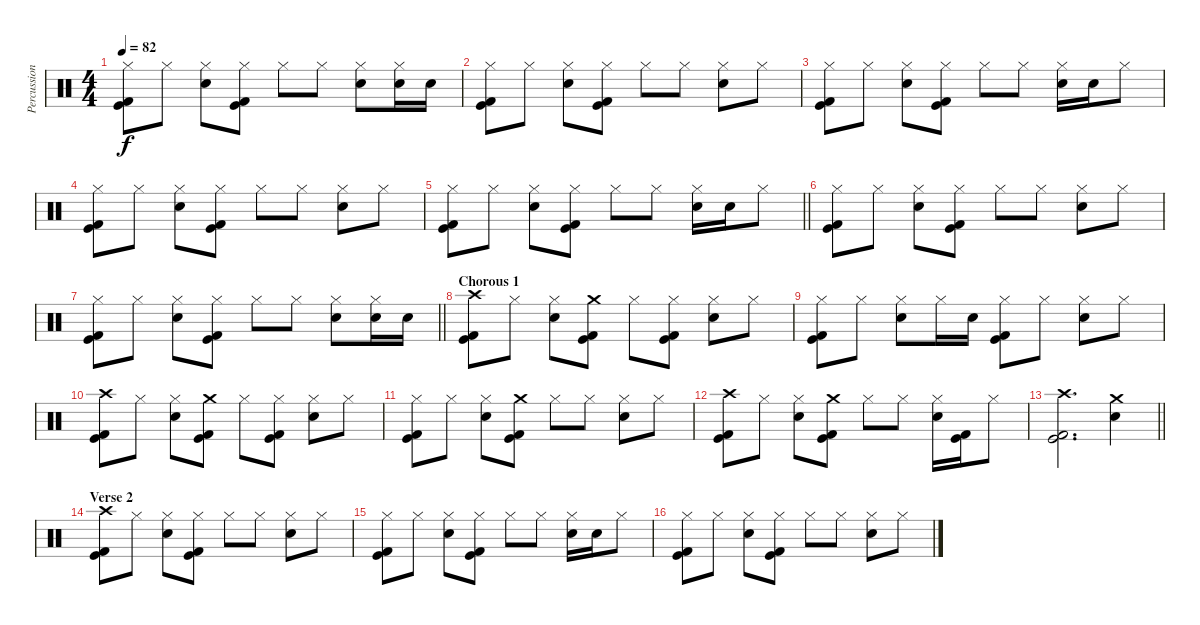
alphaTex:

\track ("Percussion" "Percussion") {instrument percussion}
\staff {score}
\articulation defaults
\ts (4 4)
\tempo 82
\clef neutral
\ks c
("Hi-Hat (closed)" "Kick (hit)" "Kick (hit) 2").8{dy f} "Hi-Hat (closed)".8 ("Hi-Hat (closed)" "Electric Snare (hit)").8 ("Hi-Hat (closed)" "Kick (hit)" "Kick (hit) 2").8 "Hi-Hat (closed)".8 "Hi-Hat (closed)".8 ("Hi-Hat (closed)" "Electric Snare (hit)").8 ("Hi-Hat (closed)" "Electric Snare (hit)").16 "Electric Snare (hit)".16 |
("Hi-Hat (closed)" "Kick (hit)" "Kick (hit) 2").8 "Hi-Hat (closed)".8 ("Hi-Hat (closed)" "Electric Snare (hit)").8 ("Hi-Hat (closed)" "Kick (hit)" "Kick (hit) 2").8 "Hi-Hat (closed)".8 "Hi-Hat (closed)".8 ("Hi-Hat (closed)" "Electric Snare (hit)").8 "Hi-Hat (closed)".8 |
("Hi-Hat (closed)" "Kick (hit)" "Kick (hit) 2").8 "Hi-Hat (closed)".8 ("Hi-Hat (closed)" "Electric Snare (hit)").8 ("Hi-Hat (closed)" "Kick (hit)" "Kick (hit) 2").8 "Hi-Hat (closed)".8 "Hi-Hat (closed)".8 ("Hi-Hat (closed)" "Electric Snare (hit)").16 "Electric Snare (hit)".16 "Hi-Hat (closed)".8 |
("Hi-Hat (closed)" "Kick (hit)" "Kick (hit) 2").8 "Hi-Hat (closed)".8 ("Hi-Hat (closed)" "Electric Snare (hit)").8 ("Hi-Hat (closed)" "Kick (hit)" "Kick (hit) 2").8 "Hi-Hat (closed)".8 "Hi-Hat (closed)".8 ("Hi-Hat (closed)" "Electric Snare (hit)").8 "Hi-Hat (closed)".8 |
\barLineRight lightlight
("Hi-Hat (closed)" "Kick (hit)" "Kick (hit) 2").8 "Hi-Hat (closed)".8 ("Hi-Hat (closed)" "Electric Snare (hit)").8 ("Hi-Hat (closed)" "Kick (hit)" "Kick (hit) 2").8 "Hi-Hat (closed)".8 "Hi-Hat (closed)".8 ("Hi-Hat (closed)" "Electric Snare (hit)").16 "Electric Snare (hit)".16 "Hi-Hat (closed)".8 |
\section ("" "")
("Hi-Hat (closed)" "Kick (hit)" "Kick (hit) 2").8 "Hi-Hat (closed)".8 ("Hi-Hat (closed)" "Electric Snare (hit)").8 ("Hi-Hat (closed)" "Kick (hit)" "Kick (hit) 2").8 "Hi-Hat (closed)".8 "Hi-Hat (closed)".8 ("Hi-Hat (closed)" "Electric Snare (hit)").8 "Hi-Hat (closed)".8 |
\barLineRight lightlight
("Hi-Hat (closed)" "Kick (hit)" "Kick (hit) 2").8 "Hi-Hat (closed)".8 ("Hi-Hat (closed)" "Electric Snare (hit)").8 ("Hi-Hat (closed)" "Kick (hit)" "Kick (hit) 2").8 "Hi-Hat (closed)".8 "Hi-Hat (closed)".8 ("Hi-Hat (closed)" "Electric Snare (hit)").8 ("Hi-Hat (closed)" "Electric Snare (hit)").16 "Electric Snare (hit)".16 |
\section ("" "Chorous 1")
("Crash high (hit)" "Kick (hit)" "Kick (hit) 2").8 "Hi-Hat (closed)".8 ("Hi-Hat (closed)" "Electric Snare (hit)").8 ("Crash medium (hit)" "Kick (hit)" "Kick (hit) 2").8 "Hi-Hat (closed)".8 ("Hi-Hat (closed)" "Kick (hit)" "Kick (hit) 2").8 ("Hi-Hat (closed)" "Electric Snare (hit)").8 "Hi-Hat (closed)".8 |
("Hi-Hat (closed)" "Kick (hit)" "Kick (hit) 2").8 "Hi-Hat (closed)".8 ("Hi-Hat (closed)" "Electric Snare (hit)").8 "Hi-Hat (closed)".16 "Electric Snare (hit)".16 ("Hi-Hat (closed)" "Kick (hit)" "Kick (hit) 2").8 "Hi-Hat (closed)".8 ("Hi-Hat (closed)" "Electric Snare (hit)").8 "Hi-Hat (closed)".8 |
("Crash high (hit)" "Kick (hit)" "Kick (hit) 2").8 "Hi-Hat (closed)".8 ("Hi-Hat (closed)" "Electric Snare (hit)").8 ("Crash medium (hit)" "Kick (hit)" "Kick (hit) 2").8 "Hi-Hat (closed)".8 ("Hi-Hat (closed)" "Kick (hit)" "Kick (hit) 2").8 ("Hi-Hat (closed)" "Electric Snare (hit)").8 "Hi-Hat (closed)".8 |
("Hi-Hat (closed)" "Kick (hit)" "Kick (hit) 2").8 "Hi-Hat (closed)".8 ("Hi-Hat (closed)" "Electric Snare (hit)").8 ("Crash medium (hit)" "Kick (hit)" "Kick (hit) 2").8 "Hi-Hat (closed)".8 "Hi-Hat (closed)".8 ("Hi-Hat (closed)" "Electric Snare (hit)").8 "Hi-Hat (closed)".8 |
("Crash high (hit)" "Kick (hit)" "Kick (hit) 2").8 "Hi-Hat (closed)".8 ("Hi-Hat (closed)" "Electric Snare (hit)").8 ("Crash medium (hit)" "Kick (hit)" "Kick (hit) 2").8 "Hi-Hat (closed)".8 "Hi-Hat (closed)".8 ("Hi-Hat (closed)" "Electric Snare (hit)").16 ("Kick (hit)" "Kick (hit) 2").16 "Hi-Hat (closed)".8 |
\barLineRight lightlight
("Crash high (hit)" "Kick (hit)" "Kick (hit) 2").2{d} ("Crash medium (hit)" "Electric Snare (hit)").4 |
\section ("" "Verse 2")
("Crash high (hit)" "Kick (hit)" "Kick (hit) 2").8 "Hi-Hat (closed)".8 ("Hi-Hat (closed)" "Electric Snare (hit)").8 ("Hi-Hat (closed)" "Kick (hit)" "Kick (hit) 2").8 "Hi-Hat (closed)".8 "Hi-Hat (closed)".8 ("Hi-Hat (closed)" "Electric Snare (hit)").8 "Hi-Hat (closed)".8 |
("Hi-Hat (closed)" "Kick (hit)" "Kick (hit) 2").8 "Hi-Hat (closed)".8 ("Hi-Hat (closed)" "Electric Snare (hit)").8 ("Hi-Hat (closed)" "Kick (hit)" "Kick (hit) 2").8 "Hi-Hat (closed)".8 "Hi-Hat (closed)".8 ("Hi-Hat (closed)" "Electric Snare (hit)").16 "Electric Snare (hit)".16 "Hi-Hat (closed)".8 |
("Hi-Hat (closed)" "Kick (hit)" "Kick (hit) 2").8 "Hi-Hat (closed)".8 ("Hi-Hat (closed)" "Electric Snare (hit)").8 ("Hi-Hat (closed)" "Kick (hit)" "Kick (hit) 2").8 "Hi-Hat (closed)".8 "Hi-Hat (closed)".8 ("Hi-Hat (closed)" "Electric Snare (hit)").8 "Hi-Hat (closed)".8
